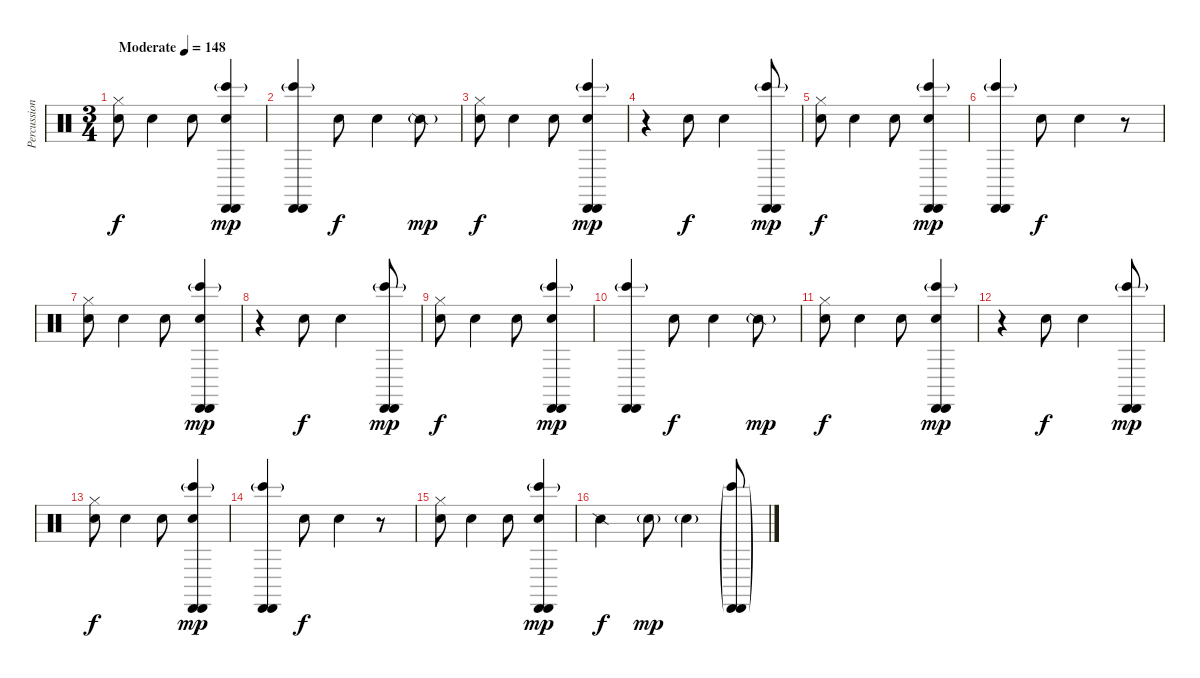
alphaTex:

\track ("Percussion" "Percussion") {instrument percussion}
\staff {score}
\articulation defaults
\ts (3 4)
\tempo (148 "Moderate")
\clef neutral
\ks c
("Hand Clap (hit)" "Hi-Hat (closed)").8{dy f} "Hand Clap (hit)".4 "Hand Clap (hit)".8 ("Hand Clap (hit)" "Bongo High (hit)"{g} "Cabasa (hit)" "Cabasa (hit)").4{dy mp} |
("Bongo High (hit)"{g} "Cabasa (hit)" "Cabasa (hit)").4 "Hand Clap (hit)".8{dy f} "Hand Clap (hit)".4 "Snare (side stick) 2"{g}.8{dy mp} |
("Hand Clap (hit)" "Hi-Hat (closed)").8{dy f} "Hand Clap (hit)".4 "Hand Clap (hit)".8 ("Hand Clap (hit)" "Bongo High (hit)"{g} "Cabasa (hit)" "Cabasa (hit)").4{dy mp} |
r.4 "Hand Clap (hit)".8{dy f} "Hand Clap (hit)".4 ("Bongo High (hit)"{g} "Cabasa (hit)" "Cabasa (hit)").8{dy mp} |
("Hand Clap (hit)" "Hi-Hat (closed)").8{dy f} "Hand Clap (hit)".4 "Hand Clap (hit)".8 ("Hand Clap (hit)" "Bongo High (hit)"{g} "Cabasa (hit)" "Cabasa (hit)").4{dy mp} |
("Bongo High (hit)"{g} "Cabasa (hit)" "Cabasa (hit)").4 "Hand Clap (hit)".8{dy f} "Hand Clap (hit)".4 r.8 |
("Hand Clap (hit)" "Hi-Hat (closed)").8 "Hand Clap (hit)".4 "Hand Clap (hit)".8 ("Hand Clap (hit)" "Bongo High (hit)"{g} "Cabasa (hit)" "Cabasa (hit)").4{dy mp} |
r.4 "Hand Clap (hit)".8{dy f} "Hand Clap (hit)".4 ("Bongo High (hit)"{g} "Cabasa (hit)" "Cabasa (hit)").8{dy mp} |
("Hand Clap (hit)" "Hi-Hat (closed)").8{dy f} "Hand Clap (hit)".4 "Hand Clap (hit)".8 ("Hand Clap (hit)" "Bongo High (hit)"{g} "Cabasa (hit)" "Cabasa (hit)").4{dy mp} |
("Bongo High (hit)"{g} "Cabasa (hit)" "Cabasa (hit)").4 "Hand Clap (hit)".8{dy f} "Hand Clap (hit)".4 "Snare (side stick) 2"{g}.8{dy mp} |
("Hand Clap (hit)" "Hi-Hat (closed)").8{dy f} "Hand Clap (hit)".4 "Hand Clap (hit)".8 ("Hand Clap (hit)" "Bongo High (hit)"{g} "Cabasa (hit)" "Cabasa (hit)").4{dy mp} |
r.4 "Hand Clap (hit)".8{dy f} "Hand Clap (hit)".4 ("Bongo High (hit)"{g} "Cabasa (hit)" "Cabasa (hit)").8{dy mp} |
("Hand Clap (hit)" "Hi-Hat (closed)").8{dy f} "Hand Clap (hit)".4 "Hand Clap (hit)".8 ("Hand Clap (hit)" "Bongo High (hit)"{g} "Cabasa (hit)" "Cabasa (hit)").4{dy mp} |
("Bongo High (hit)"{g} "Cabasa (hit)" "Cabasa (hit)").4 "Hand Clap (hit)".8{dy f} "Hand Clap (hit)".4 r.8 |
("Hand Clap (hit)" "Hi-Hat (closed)").8 "Hand Clap (hit)".4 "Hand Clap (hit)".8 ("Hand Clap (hit)" "Bongo High (hit)"{g} "Cabasa (hit)" "Cabasa (hit)").4{dy mp} |
"Snare (side stick) 2".4{dy f} "Hand Clap (hit)"{g}.8{dy mp} "Hand Clap (hit)"{g}.4 ("Bongo High (hit)"{g} "Cabasa (hit)"{g} "Cabasa (hit)"{g}).8
